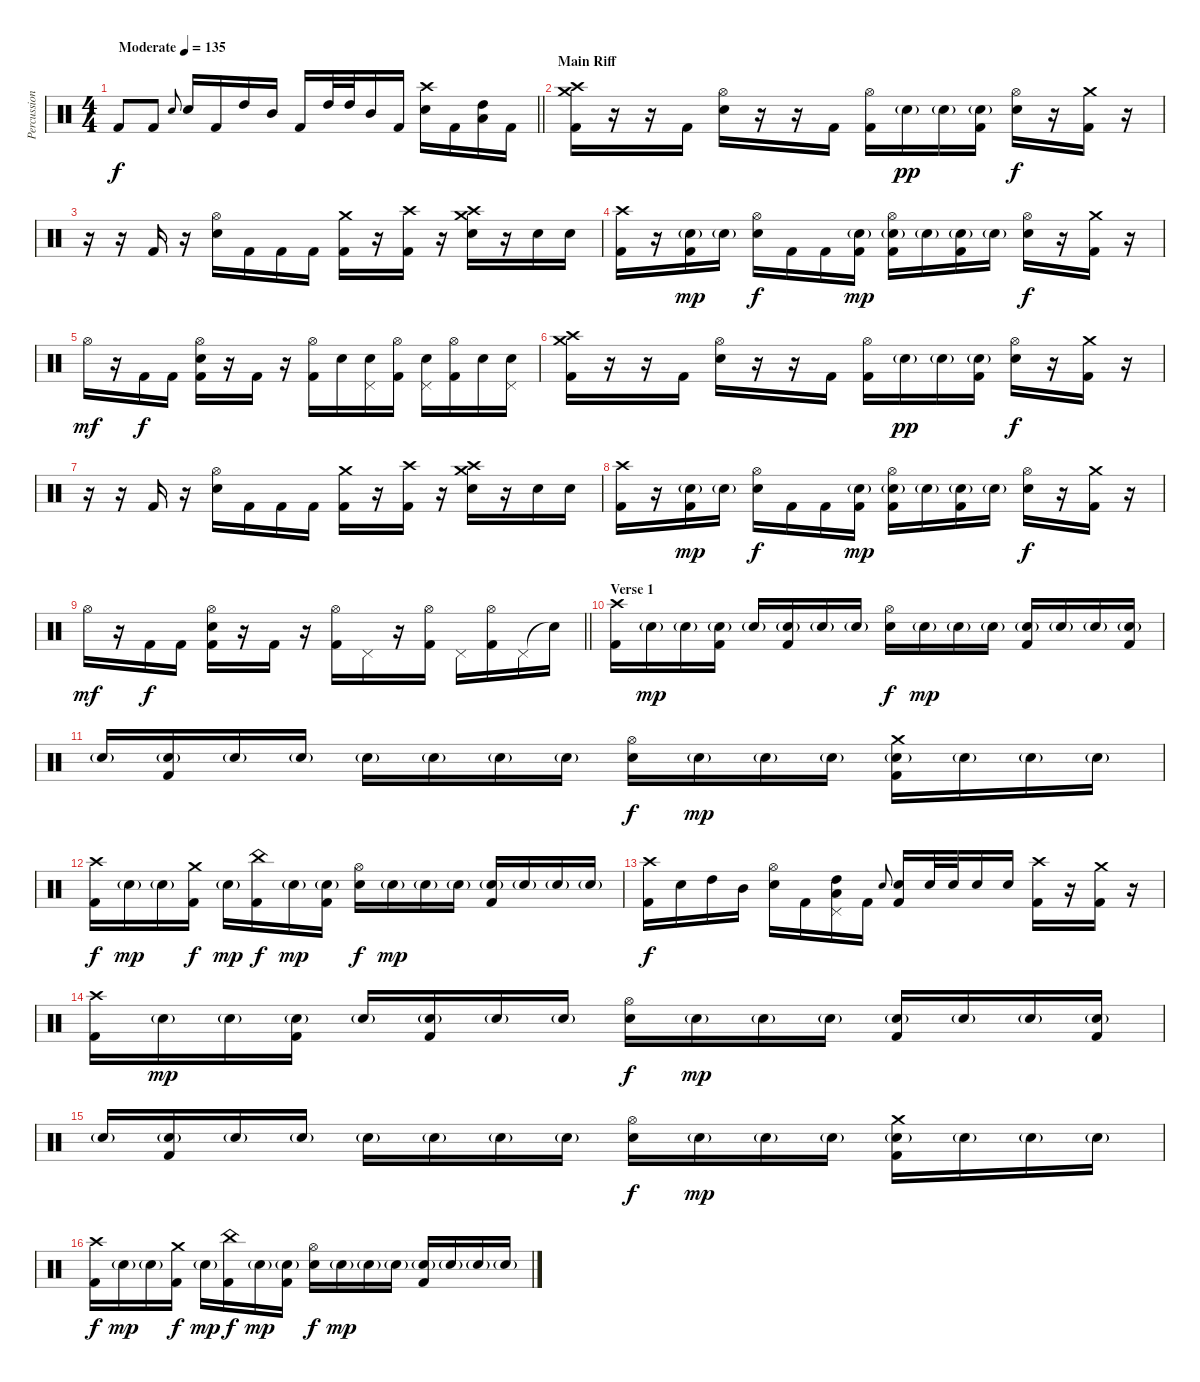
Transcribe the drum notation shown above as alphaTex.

\track ("Percussion" "Percussion") {instrument percussion}
\staff {score}
\articulation defaults
\ts (4 4)
\tempo (135 "Moderate")
\clef neutral
\barLineRight lightlight
\ks c "Kick (hit) 2".8{dy f} "Kick (hit) 2".8 "Electric Snare (hit)".8{gr onbeat} "Electric Snare (hit)".16 "Kick (hit) 2".16 "High Tom (hit)".16 "Mid Tom (hit)".16 "Kick (hit) 2".16 "High Tom (hit)".32 "High Tom (hit)".32 "Mid Tom (hit)".16 "Kick (hit) 2".16
("Crash high (hit)" "Electric Snare (hit)").16 "Kick (hit) 2".16 ("High Tom (hit)" "Low Tom (hit)").16 "Kick (hit) 2".16 |
\section ("" "Main Riff")
("Crash high (hit)" "Crash medium (hit)" "Kick (hit) 2").16 r.16 r.16 "Kick (hit) 2".16 ("Hi-Hat (open)" "Electric Snare (hit)").16 r.16 r.16 "Kick (hit) 2".16 ("Hi-Hat (open)" "Kick (hit) 2").16 "Electric Snare (hit)"{g}.16{dy pp} "Electric Snare (hit)"{g}.16 ("Electric Snare (hit)"{g} "Kick (hit) 2").16 ("Hi-Hat (open)" "Electric Snare (hit)").16{dy f} r.16 ("Crash medium (hit)" "Kick (hit) 2").16 r.16 |
r.16 r.16 "Kick (hit) 2".16 r.16 ("Hi-Hat (open)" "Electric Snare (hit)").16 "Kick (hit) 2".16 "Kick (hit) 2".16 "Kick (hit) 2".16 ("Crash medium (hit)" "Kick (hit) 2").16 r.16 ("Crash high (hit)" "Kick (hit) 2").16 r.16 ("Crash high (hit)" "Crash medium (hit)" "Electric Snare (hit)").16 r.16 "Electric Snare (hit)".16 "Electric Snare (hit)".16 |
("Crash high (hit)" "Kick (hit) 2").16 r.16 ("Electric Snare (hit)"{g} "Kick (hit) 2").16{dy mp} "Electric Snare (hit)"{g}.16 ("Hi-Hat (open)" "Electric Snare (hit)").16{dy f} "Kick (hit) 2".16 "Kick (hit) 2".16 ("Electric Snare (hit)"{g} "Kick (hit) 2").16{dy mp} ("Hi-Hat (open)" "Electric Snare (hit)"{g} "Kick (hit) 2").16 "Electric Snare (hit)"{g}.16 ("Electric Snare (hit)"{g} "Kick (hit) 2").16 "Electric Snare (hit)"{g}.16 ("Hi-Hat (open)" "Electric Snare (hit)").16{dy f} r.16 ("Crash medium (hit)" "Kick (hit) 2").16 r.16 |
"Hi-Hat (open)".16{dy mf} r.16 "Kick (hit) 2".16{dy f} "Kick (hit) 2".16 ("Hi-Hat (open)" "Electric Snare (hit)" "Kick (hit) 2").16 r.16 "Kick (hit) 2".16 r.16 ("Hi-Hat (open)" "Kick (hit) 2").16 "Electric Snare (hit)".16 ("Pedal Hi-Hat (hit)" "Electric Snare (hit)").16 ("Hi-Hat (open)" "Kick (hit) 2").16 ("Pedal Hi-Hat (hit)" "Electric Snare (hit)").16 ("Hi-Hat (open)" "Kick (hit) 2").16 "Electric Snare (hit)".16 ("Pedal Hi-Hat (hit)" "Electric Snare (hit)").16 |
("Crash high (hit)" "Crash medium (hit)" "Kick (hit) 2").16 r.16 r.16 "Kick (hit) 2".16 ("Hi-Hat (open)" "Electric Snare (hit)").16 r.16 r.16 "Kick (hit) 2".16 ("Hi-Hat (open)" "Kick (hit) 2").16 "Electric Snare (hit)"{g}.16{dy pp} "Electric Snare (hit)"{g}.16 ("Electric Snare (hit)"{g} "Kick (hit) 2").16 ("Hi-Hat (open)" "Electric Snare (hit)").16{dy f} r.16 ("Crash medium (hit)" "Kick (hit) 2").16 r.16 |
r.16 r.16 "Kick (hit) 2".16 r.16 ("Hi-Hat (open)" "Electric Snare (hit)").16 "Kick (hit) 2".16 "Kick (hit) 2".16 "Kick (hit) 2".16 ("Crash medium (hit)" "Kick (hit) 2").16 r.16 ("Crash high (hit)" "Kick (hit) 2").16 r.16 ("Crash high (hit)" "Crash medium (hit)" "Electric Snare (hit)").16 r.16 "Electric Snare (hit)".16 "Electric Snare (hit)".16 |
("Crash high (hit)" "Kick (hit) 2").16 r.16 ("Electric Snare (hit)"{g} "Kick (hit) 2").16{dy mp} "Electric Snare (hit)"{g}.16 ("Hi-Hat (open)" "Electric Snare (hit)").16{dy f} "Kick (hit) 2".16 "Kick (hit) 2".16 ("Electric Snare (hit)"{g} "Kick (hit) 2").16{dy mp} ("Hi-Hat (open)" "Electric Snare (hit)"{g} "Kick (hit) 2").16 "Electric Snare (hit)"{g}.16 ("Electric Snare (hit)"{g} "Kick (hit) 2").16 "Electric Snare (hit)"{g}.16 ("Hi-Hat (open)" "Electric Snare (hit)").16{dy f} r.16 ("Crash medium (hit)" "Kick (hit) 2").16 r.16 |
\barLineRight lightlight "Hi-Hat (open)".16{dy mf}
r.16 "Kick (hit) 2".16{dy f} "Kick (hit) 2".16 ("Hi-Hat (open)" "Electric Snare (hit)" "Kick (hit) 2").16 r.16 "Kick (hit) 2".16 r.16 ("Hi-Hat (open)" "Kick (hit) 2").16 "Pedal Hi-Hat (hit)".16 r.16 ("Hi-Hat (open)" "Kick (hit) 2").16 "Pedal Hi-Hat (hit)".16 ("Hi-Hat (open)" "Kick (hit) 2").16 "Pedal Hi-Hat (hit)".16 "Snare (hit)"{t}.16 |
\section ("" "Verse 1")
("Crash high (hit)" "Kick (hit) 2").16 "Electric Snare (hit)"{g}.16{dy mp} "Electric Snare (hit)"{g}.16 ("Electric Snare (hit)"{g} "Kick (hit) 2").16 "Electric Snare (hit)"{g}.16 ("Electric Snare (hit)"{g} "Kick (hit) 2").16 "Electric Snare (hit)"{g}.16 "Electric Snare (hit)"{g}.16 ("Hi-Hat (open)" "Electric Snare (hit)").16{dy f} "Electric Snare (hit)"{g}.16{dy mp} "Electric Snare (hit)"{g}.16 "Electric Snare (hit)"{g}.16 ("Electric Snare (hit)"{g} "Kick (hit) 2").16 "Electric Snare (hit)"{g}.16 "Electric Snare (hit)"{g}.16 ("Electric Snare (hit)"{g} "Kick (hit) 2").16 |
"Electric Snare (hit)"{g}.16 ("Electric Snare (hit)"{g} "Kick (hit) 2").16 "Electric Snare (hit)"{g}.16 "Electric Snare (hit)"{g}.16 "Electric Snare (hit)"{g}.16 "Electric Snare (hit)"{g}.16 "Electric Snare (hit)"{g}.16 "Electric Snare (hit)"{g}.16 ("Hi-Hat (open)" "Electric Snare (hit)").16{dy f} "Electric Snare (hit)"{g}.16{dy mp} "Electric Snare (hit)"{g}.16 "Electric Snare (hit)"{g}.16 ("Crash medium (hit)" "Electric Snare (hit)"{g} "Kick (hit) 2").16 "Electric Snare (hit)"{g}.16 "Electric Snare (hit)"{g}.16 "Electric Snare (hit)"{g}.16 |
("Crash high (hit)" "Kick (hit) 2").16{dy f} "Electric Snare (hit)"{g}.16{dy mp} "Electric Snare (hit)"{g}.16 ("Crash medium (hit)" "Kick (hit) 2").16{dy f} "Electric Snare (hit)"{g}.16{dy mp} ("China (hit)" "Kick (hit) 2").16{dy f} "Electric Snare (hit)"{g}.16{dy mp} ("Electric Snare (hit)"{g} "Kick (hit) 2").16 ("Hi-Hat (open)" "Electric Snare (hit)").16{dy f} "Electric Snare (hit)"{g}.16{dy mp} "Electric Snare (hit)"{g}.16 "Electric Snare (hit)"{g}.16 ("Electric Snare (hit)"{g} "Kick (hit) 2").16 "Electric Snare (hit)"{g}.16 "Electric Snare (hit)"{g}.16 "Electric Snare (hit)"{g}.16 |
("Crash high (hit)" "Kick (hit) 2").16{dy f} "Electric Snare (hit)".16 "High Tom (hit)".16 "Mid Tom (hit)".16 ("Hi-Hat (open)" "Electric Snare (hit)").16 "Kick (hit) 2".16 ("Pedal Hi-Hat (hit)" "High Tom (hit)" "Low Tom (hit)").16 "Kick (hit) 2".16 "Electric Snare (hit)".8{gr onbeat} ("Electric Snare (hit)" "Kick (hit) 2").16 "Electric Snare (hit)".32 "Electric Snare (hit)".32 "Electric Snare (hit)".16 "Electric Snare (hit)".16 ("Crash high (hit)" "Kick (hit) 2").16 r.16 ("Crash medium (hit)" "Kick (hit) 2").16 r.16 |
("Crash high (hit)" "Kick (hit) 2").16 "Electric Snare (hit)"{g}.16{dy mp} "Electric Snare (hit)"{g}.16 ("Electric Snare (hit)"{g} "Kick (hit) 2").16 "Electric Snare (hit)"{g}.16 ("Electric Snare (hit)"{g} "Kick (hit) 2").16 "Electric Snare (hit)"{g}.16 "Electric Snare (hit)"{g}.16 ("Hi-Hat (open)" "Electric Snare (hit)").16{dy f} "Electric Snare (hit)"{g}.16{dy mp} "Electric Snare (hit)"{g}.16 "Electric Snare (hit)"{g}.16 ("Electric Snare (hit)"{g} "Kick (hit) 2").16 "Electric Snare (hit)"{g}.16 "Electric Snare (hit)"{g}.16 ("Electric Snare (hit)"{g} "Kick (hit) 2").16 |
"Electric Snare (hit)"{g}.16 ("Electric Snare (hit)"{g} "Kick (hit) 2").16 "Electric Snare (hit)"{g}.16 "Electric Snare (hit)"{g}.16 "Electric Snare (hit)"{g}.16 "Electric Snare (hit)"{g}.16 "Electric Snare (hit)"{g}.16 "Electric Snare (hit)"{g}.16 ("Hi-Hat (open)" "Electric Snare (hit)").16{dy f} "Electric Snare (hit)"{g}.16{dy mp} "Electric Snare (hit)"{g}.16 "Electric Snare (hit)"{g}.16 ("Crash medium (hit)" "Electric Snare (hit)"{g} "Kick (hit) 2").16 "Electric Snare (hit)"{g}.16 "Electric Snare (hit)"{g}.16 "Electric Snare (hit)"{g}.16 |
("Crash high (hit)" "Kick (hit) 2").16{dy f} "Electric Snare (hit)"{g}.16{dy mp} "Electric Snare (hit)"{g}.16 ("Crash medium (hit)" "Kick (hit) 2").16{dy f} "Electric Snare (hit)"{g}.16{dy mp} ("China (hit)" "Kick (hit) 2").16{dy f} "Electric Snare (hit)"{g}.16{dy mp} ("Electric Snare (hit)"{g} "Kick (hit) 2").16 ("Hi-Hat (open)" "Electric Snare (hit)").16{dy f} "Electric Snare (hit)"{g}.16{dy mp} "Electric Snare (hit)"{g}.16 "Electric Snare (hit)"{g}.16 ("Electric Snare (hit)"{g} "Kick (hit) 2").16 "Electric Snare (hit)"{g}.16 "Electric Snare (hit)"{g}.16 "Electric Snare (hit)"{g}.16
